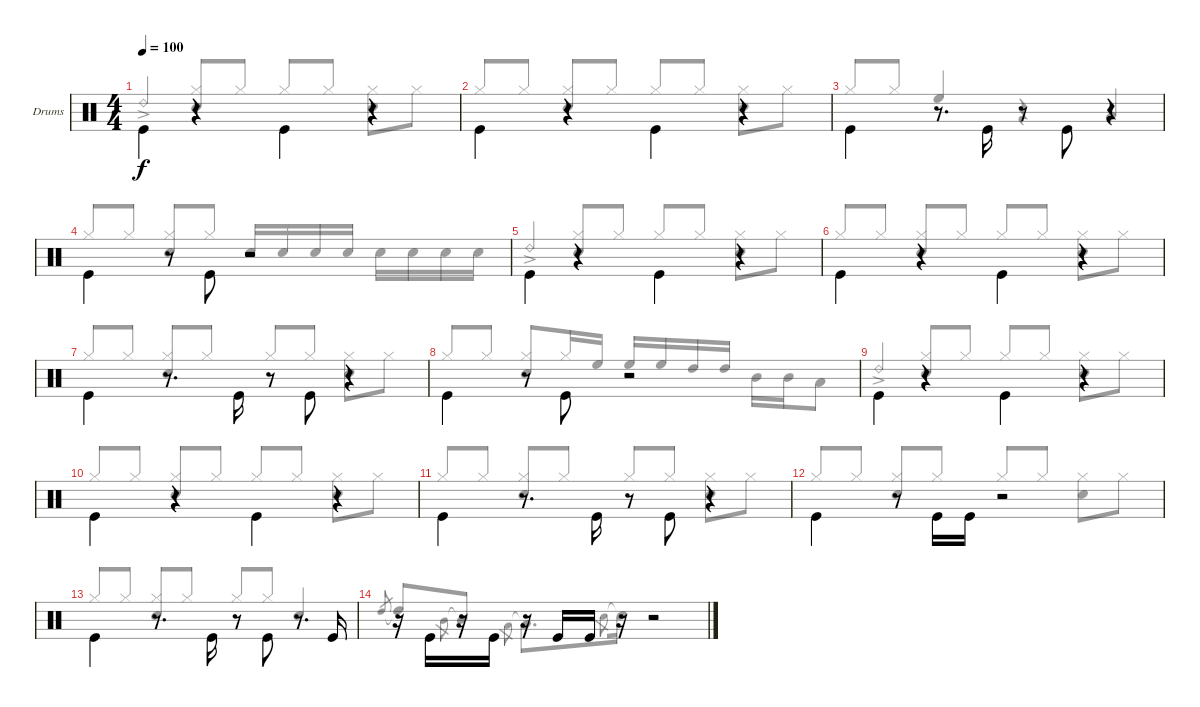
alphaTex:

\defaultSystemsLayout 4
\bracketExtendMode groupsimilarinstruments
\firstSystemTrackNameOrientation horizontal
\otherSystemsTrackNameOrientation horizontal
\track ("Drumkit" "Drums") {instrument percussion}
\staff {score}
\articulation defaults
\voice
\ts (4 4)
\tempo 100
\clef neutral
\scale
1.02648
\ks c "Kick (hit)".4{dy f beam invert}
r.4{beam invert} "Kick (hit)".4{beam invert} r.4{beam invert} |
\scale
0.973518 "Kick (hit)".4{beam invert} r.4{beam invert} "Kick (hit)".4{beam invert} r.4{beam invert} |
\scale
1.02648 "Kick (hit)".4{beam invert} r.8{d} "Kick (hit)".16{beam invert} r.8{beam invert} "Kick (hit)".8{beam invert} r.4 |
\scale
0.973518 "Kick (hit)".4{beam invert} r.8{beam invert} "Kick (hit)".8{beam invert} r.2 |
\scale
1.02648 "Kick (hit)".4{beam invert} r.4{beam invert} "Kick (hit)".4{beam invert} r.4{beam invert} |
\scale
0.973518 "Kick (hit)".4{beam invert} r.4{beam invert} "Kick (hit)".4{beam invert} r.4{beam invert} |
\scale
1.02648 "Kick (hit)".4{beam invert} r.8{d} "Kick (hit)".16{beam invert} r.8{beam invert} "Kick (hit)".8{beam invert} r.4 |
\scale
0.973518 "Kick (hit)".4{beam invert} r.8{beam invert} "Kick (hit)".8{beam invert} r.2 |
\scale
1.02648 "Kick (hit)".4{beam invert} r.4{beam invert} "Kick (hit)".4{beam invert} r.4{beam invert} |
\scale
0.973518 "Kick (hit)".4{beam invert} r.4{beam invert} "Kick (hit)".4{beam invert} r.4{beam invert} |
\scale
1.02648 "Kick (hit)".4{beam invert} r.8{d} "Kick (hit)".16{beam invert} r.8{beam invert} "Kick (hit)".8{beam invert} r.4 |
\scale
0.973518 "Kick (hit)".4{beam invert} r.8{beam invert} "Kick (hit)".16{beam invert} "Kick (hit)".16 r.2 |
\scale
1.02648 "Kick (hit)".4{beam invert} r.8{d} "Kick (hit)".16{beam invert} r.8{beam invert} "Kick (hit)".8{beam invert} r.8{d} "Kick (hit)".16 |
\scale
0.973518 r.16 "Kick (hit)".16{beam invert} r.16 "Kick (hit)".16 r.16 "Kick (hit)".16 "Kick (hit)".16 r.16 r.2
\voice
\clef neutral
\ottava regular
\simile none
\scale
1.02648
\ks c "Ride (bell) 2"{ac}.4{dy f beam invert}
("Hi-Hat (closed)" "Snare (hit) 2").8{beam invert} "Hi-Hat (closed)".8 "Hi-Hat (closed)".8{beam invert} "Hi-Hat (closed)".8 ("Hi-Hat (closed)" "Snare (hit) 2").8 "Hi-Hat (closed)".8 |
\scale
0.973518 "Hi-Hat (closed)".8{beam invert} "Hi-Hat (closed)".8 ("Hi-Hat (closed)" "Snare (hit) 2").8 "Hi-Hat (closed)".8 "Hi-Hat (closed)".8{beam invert} "Hi-Hat (closed)".8 ("Hi-Hat (closed)" "Snare (hit) 2").8 "Hi-Hat (closed)".8 |
\scale
1.02648 "Hi-Hat (closed)".8{beam invert} "Hi-Hat (closed)".8 "High Floor Tom (hit)".4{beam invert} r.4 "Low Tom (hit)".4{beam invert} |
\scale
0.973518 "Hi-Hat (closed)".8{beam invert} "Hi-Hat (closed)".8 ("Hi-Hat (closed)" "Snare (hit) 2").8 "Hi-Hat (closed)".8 "Snare (hit) 2".16{beam invert} "Snare (hit) 2".16 "Snare (hit) 2".16 "Snare (hit) 2".16 "Snare (hit) 2".16 "Snare (hit) 2".16 "Snare (hit) 2".16 "Snare (hit) 2".16 |
\scale
1.02648 "Ride (bell) 2"{ac}.4{beam invert} ("Hi-Hat (closed)" "Snare (hit) 2").8{beam invert} "Hi-Hat (closed)".8 "Hi-Hat (closed)".8{beam invert} "Hi-Hat (closed)".8 ("Hi-Hat (closed)" "Snare (hit) 2").8 "Hi-Hat (closed)".8 |
\scale
0.973518 "Hi-Hat (closed)".8{beam invert} "Hi-Hat (closed)".8 ("Hi-Hat (closed)" "Snare (hit) 2").8 "Hi-Hat (closed)".8 "Hi-Hat (closed)".8{beam invert} "Hi-Hat (closed)".8 ("Hi-Hat (closed)" "Snare (hit) 2").8 "Hi-Hat (closed)".8 |
\scale
1.02648 "Hi-Hat (closed)".8{beam invert} "Hi-Hat (closed)".8 ("Hi-Hat (closed)" "Snare (hit) 2").8 "Hi-Hat (closed)".8 "Hi-Hat (closed)".8{beam invert} "Hi-Hat (closed)".8 ("Hi-Hat (closed)" "Snare (hit) 2").8 "Hi-Hat (closed)".8 |
\scale
0.973518 "Hi-Hat (closed)".8{beam invert} "Hi-Hat (closed)".8 ("Hi-Hat (closed)" "Snare (hit) 2").8 "Hi-Hat (closed)".16 "High Floor Tom (hit)".16 "High Floor Tom (hit)".16{beam invert} "High Floor Tom (hit)".16 "High Tom (hit)".16 "High Tom (hit)".16 "Mid Tom (hit)".16 "Mid Tom (hit)".16 "Low Tom (hit)".8 |
\scale
1.02648 "Ride (bell) 2"{ac}.4{beam invert} ("Hi-Hat (closed)" "Snare (hit) 2").8{beam invert} "Hi-Hat (closed)".8 "Hi-Hat (closed)".8{beam invert} "Hi-Hat (closed)".8 ("Hi-Hat (closed)" "Snare (hit) 2").8 "Hi-Hat (closed)".8 |
\scale
0.973518 "Hi-Hat (closed)".8{beam invert} "Hi-Hat (closed)".8 ("Hi-Hat (closed)" "Snare (hit) 2").8 "Hi-Hat (closed)".8 "Hi-Hat (closed)".8{beam invert} "Hi-Hat (closed)".8 ("Hi-Hat (closed)" "Snare (hit) 2").8 "Hi-Hat (closed)".8 |
\scale
1.02648 "Hi-Hat (closed)".8{beam invert} "Hi-Hat (closed)".8 ("Hi-Hat (closed)" "Snare (hit) 2").8 "Hi-Hat (closed)".8 "Hi-Hat (closed)".8{beam invert} "Hi-Hat (closed)".8 ("Hi-Hat (closed)" "Snare (hit) 2").8 "Hi-Hat (closed)".8 |
\scale
0.973518 "Hi-Hat (closed)".8{beam invert} "Hi-Hat (closed)".8 ("Hi-Hat (closed)" "Snare (hit) 2").8 "Hi-Hat (closed)".8 "Hi-Hat (closed)".8{beam invert} "Hi-Hat (closed)".8 ("Hi-Hat (closed)" "Snare (hit) 2").8 "Hi-Hat (closed)".8 |
\scale
1.02648 "Hi-Hat (closed)".8{beam invert} "Hi-Hat (closed)".8 ("Hi-Hat (closed)" "Snare (hit) 2").8 "Hi-Hat (closed)".8 "Hi-Hat (closed)".8{beam invert} "Hi-Hat (closed)".8 "Snare (hit) 2".4{beam invert} |
\scale
0.973518 "High Tom (hit)".8{gr beam invert} "High Tom (hit)"{t}.8{beam invert} "Mid Tom (hit)".8{gr} "Mid Tom (hit)"{t}.8 "Low Tom (hit)".8{gr} "Low Tom (hit)"{t}.8{d} "Snare (hit) 2".8{gr} "Snare (hit) 2"{t}.16 r.2
